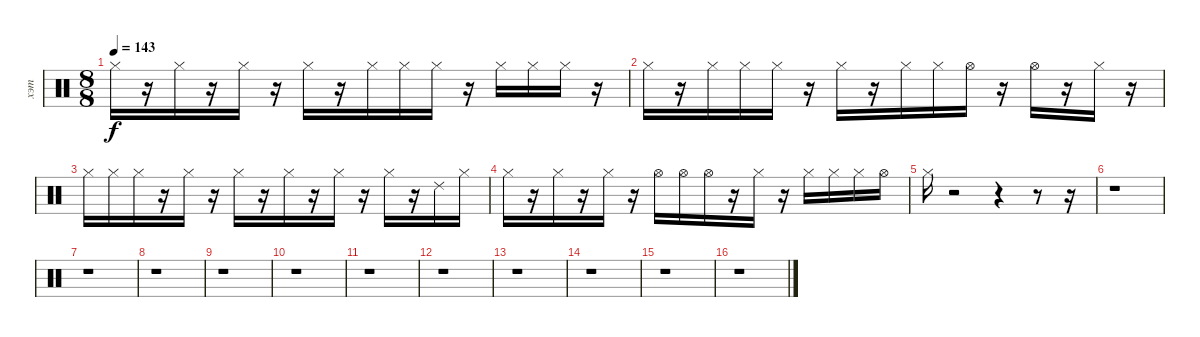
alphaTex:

\track ("хэт" "хэт") {instrument percussion}
\staff {score}
\articulation defaults
\ts (8 8)
\tempo 143
\clef neutral
\ks c "Hi-Hat (closed)".16{dy f}
r.16 "Hi-Hat (closed)".16 r.16 "Hi-Hat (closed)".16 r.16 "Hi-Hat (closed)".16 r.16 "Hi-Hat (closed)".16 "Hi-Hat (closed)".16 "Hi-Hat (closed)".16 r.16 "Hi-Hat (closed)".16 "Hi-Hat (closed)".16 "Hi-Hat (closed)".16 r.16 |
"Hi-Hat (closed)".16 r.16 "Hi-Hat (closed)".16 "Hi-Hat (closed)".16 "Hi-Hat (closed)".16 r.16 "Hi-Hat (closed)".16 r.16 "Hi-Hat (closed)".16 "Hi-Hat (closed)".16 "Hi-Hat (open)".16 r.16 "Hi-Hat (open)".16 r.16 "Hi-Hat (closed)".16 r.16 |
"Hi-Hat (closed)".16 "Hi-Hat (closed)".16 "Hi-Hat (closed)".16 r.16 "Hi-Hat (closed)".16 r.16 "Hi-Hat (closed)".16 r.16 "Hi-Hat (closed)".16 r.16 "Hi-Hat (closed)".16 r.16 "Hi-Hat (closed)".16 r.16 "Ride (middle) 2".16 "Hi-Hat (closed)".16 |
"Hi-Hat (closed)".16 r.16 "Hi-Hat (closed)".16 r.16 "Hi-Hat (closed)".16 r.16 "Hi-Hat (open)".16 "Hi-Hat (open)".16 "Hi-Hat (open)".16 r.16 "Hi-Hat (closed)".16 r.16 "Hi-Hat (closed)".16 "Hi-Hat (closed)".16 "Hi-Hat (closed)".16 "Hi-Hat (open)".16 |
"Hi-Hat (closed)".16 r.2 r.4 r.8 r.16 |
r.1 |
r.1 |
r.1 |
r.1 |
r.1 |
r.1 |
r.1 |
r.1 |
r.1 |
r.1 |
r.1
